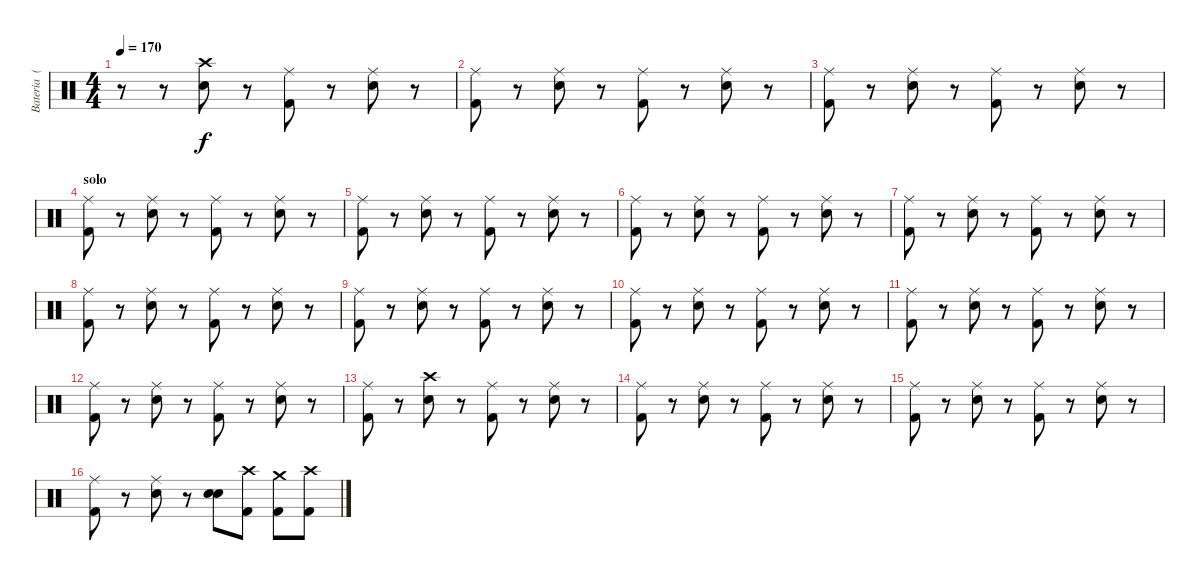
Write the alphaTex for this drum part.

\track ("Bateria  (Araujo)" "Bateria  (") {instrument percussion}
\staff {score}
\articulation defaults
\ts (4 4)
\tempo 170
\clef neutral
\ks c
r.8{dy f} r.8 ("Crash high (hit)" "Snare (hit) 2").8 r.8 ("Ride (middle)" "Kick (hit) 2").8 r.8 ("Ride (middle)" "Snare (hit) 2").8 r.8 |
("Ride (middle)" "Kick (hit) 2").8 r.8 ("Ride (middle)" "Snare (hit) 2").8 r.8 ("Ride (middle)" "Kick (hit) 2").8 r.8 ("Ride (middle)" "Snare (hit) 2").8 r.8 |
("Ride (middle)" "Kick (hit) 2").8 r.8 ("Ride (middle)" "Snare (hit) 2").8 r.8 ("Ride (middle)" "Kick (hit) 2").8 r.8 ("Ride (middle)" "Snare (hit) 2").8 r.8 |
\section ("" "solo")
("Ride (middle)" "Kick (hit) 2").8 r.8 ("Ride (middle)" "Snare (hit) 2").8 r.8 ("Ride (middle)" "Kick (hit) 2").8 r.8 ("Ride (middle)" "Snare (hit) 2").8 r.8 |
("Ride (middle)" "Kick (hit) 2").8 r.8 ("Ride (middle)" "Snare (hit) 2").8 r.8 ("Ride (middle)" "Kick (hit) 2").8 r.8 ("Ride (middle)" "Snare (hit) 2").8 r.8 |
("Ride (middle)" "Kick (hit) 2").8 r.8 ("Ride (middle)" "Snare (hit) 2").8 r.8 ("Ride (middle)" "Kick (hit) 2").8 r.8 ("Ride (middle)" "Snare (hit) 2").8 r.8 |
("Ride (middle)" "Kick (hit) 2").8 r.8 ("Ride (middle)" "Snare (hit) 2").8 r.8 ("Ride (middle)" "Kick (hit) 2").8 r.8 ("Ride (middle)" "Snare (hit) 2").8 r.8 |
("Ride (middle)" "Kick (hit) 2").8 r.8 ("Ride (middle)" "Snare (hit) 2").8 r.8 ("Ride (middle)" "Kick (hit) 2").8 r.8 ("Ride (middle)" "Snare (hit) 2").8 r.8 |
("Ride (middle)" "Kick (hit) 2").8 r.8 ("Ride (middle)" "Snare (hit) 2").8 r.8 ("Ride (middle)" "Kick (hit) 2").8 r.8 ("Ride (middle)" "Snare (hit) 2").8 r.8 |
("Ride (middle)" "Kick (hit) 2").8 r.8 ("Ride (middle)" "Snare (hit) 2").8 r.8 ("Ride (middle)" "Kick (hit) 2").8 r.8 ("Ride (middle)" "Snare (hit) 2").8 r.8 |
("Ride (middle)" "Kick (hit) 2").8 r.8 ("Ride (middle)" "Snare (hit) 2").8 r.8 ("Ride (middle)" "Kick (hit) 2").8 r.8 ("Ride (middle)" "Snare (hit) 2").8 r.8 |
("Ride (middle)" "Kick (hit) 2").8 r.8 ("Ride (middle)" "Snare (hit) 2").8 r.8 ("Ride (middle)" "Kick (hit) 2").8 r.8 ("Ride (middle)" "Snare (hit) 2").8 r.8 |
("Ride (middle)" "Kick (hit) 2").8 r.8 ("Crash high (hit)" "Snare (hit) 2").8 r.8 ("Ride (middle)" "Kick (hit) 2").8 r.8 ("Ride (middle)" "Snare (hit) 2").8 r.8 |
("Ride (middle)" "Kick (hit) 2").8 r.8 ("Ride (middle)" "Snare (hit) 2").8 r.8 ("Ride (middle)" "Kick (hit) 2").8 r.8 ("Ride (middle)" "Snare (hit) 2").8 r.8 |
("Ride (middle)" "Kick (hit) 2").8 r.8 ("Ride (middle)" "Snare (hit) 2").8 r.8 ("Ride (middle)" "Kick (hit) 2").8 r.8 ("Ride (middle)" "Snare (hit) 2").8 r.8 |
("Ride (middle)" "Kick (hit) 2").8 r.8 ("Ride (middle)" "Snare (hit) 2").8 r.8 ("Snare (hit) 2" "Snare (hit) 2").8 ("Crash high (hit)" "Kick (hit) 2").8 ("Crash medium (hit)" "Kick (hit) 2").8 ("Crash high (hit)" "Kick (hit) 2").8
